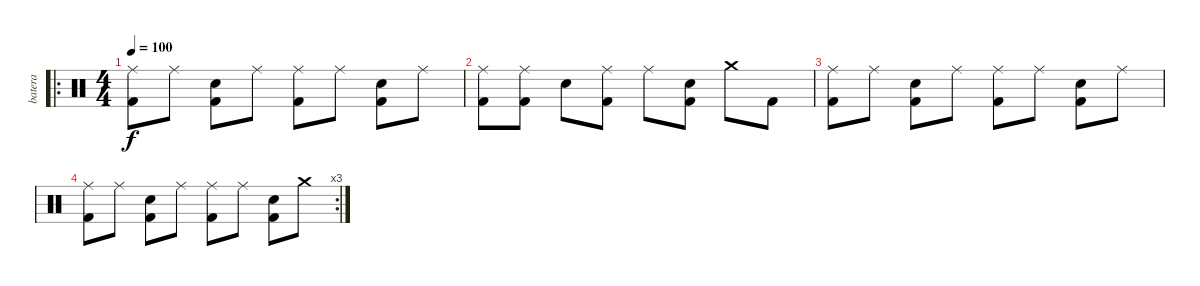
\track ("batera" "batera") {instrument percussion}
\staff {score}
\articulation defaults
\ro
\ts (4 4)
\tempo 100
\clef neutral
\ks c
("Ride (middle)" "Kick (hit) 2").8{dy f} "Ride (middle)".8 ("Electric Snare (hit)" "Kick (hit) 2").8 "Ride (middle)".8 ("Ride (middle)" "Kick (hit) 2").8 "Ride (middle)".8 ("Electric Snare (hit)" "Kick (hit) 2").8 "Ride (middle)".8 |
("Ride (middle)" "Kick (hit) 2").8 ("Ride (middle)" "Kick (hit) 2").8 "Electric Snare (hit)".8 ("Ride (middle)" "Kick (hit) 2").8 "Ride (middle)".8 ("Electric Snare (hit)" "Kick (hit) 2").8 "Crash medium (hit)".8 "Kick (hit) 2".8 |
("Ride (middle)" "Kick (hit) 2").8 "Ride (middle)".8 ("Electric Snare (hit)" "Kick (hit) 2").8 "Ride (middle)".8 ("Ride (middle)" "Kick (hit) 2").8 "Ride (middle)".8 ("Electric Snare (hit)" "Kick (hit) 2").8 "Ride (middle)".8 |
\rc 3
("Ride (middle)" "Kick (hit) 2").8 "Ride (middle)".8 ("Electric Snare (hit)" "Kick (hit) 2").8 "Ride (middle)".8 ("Ride (middle)" "Kick (hit) 2").8 "Ride (middle)".8 ("Electric Snare (hit)" "Kick (hit) 2").8 "Crash medium (hit)".8
